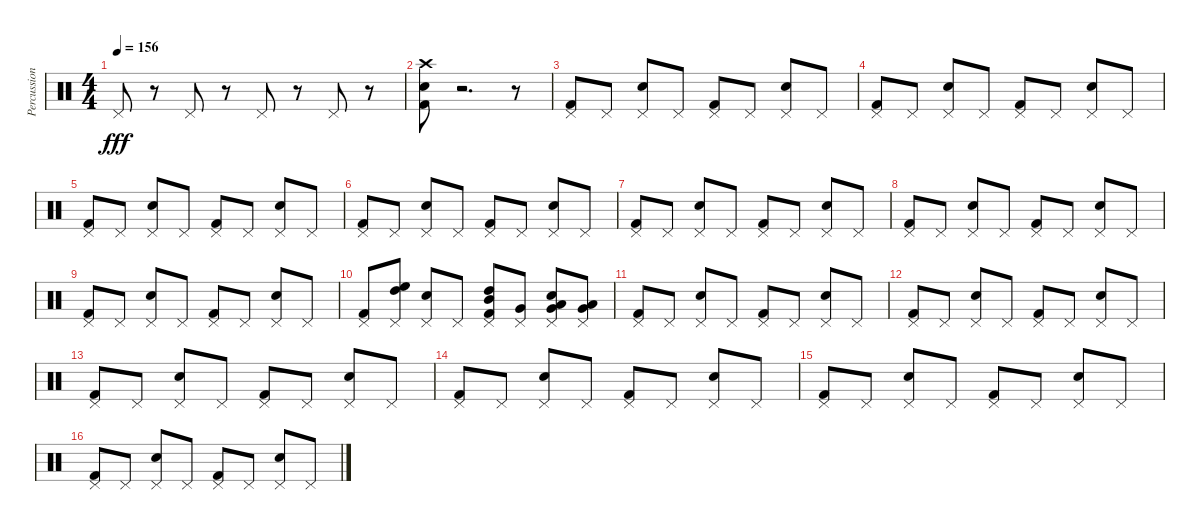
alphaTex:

\track ("Percussion" "Percussion") {instrument percussion}
\staff {score}
\articulation defaults
\ts (4 4)
\tempo 156
\clef neutral
\ks c "Pedal Hi-Hat (hit)".8{dy fff}
r.8 "Pedal Hi-Hat (hit)".8 r.8 "Pedal Hi-Hat (hit)".8 r.8 "Pedal Hi-Hat (hit)".8 r.8 |
("Kick (hit) 2" "Electric Snare (hit)" "Crash high (hit)").8 r.2{d} r.8 |
("Pedal Hi-Hat (hit)" "Kick (hit) 2").8 "Pedal Hi-Hat (hit)".8 ("Pedal Hi-Hat (hit)" "Electric Snare (hit)").8 "Pedal Hi-Hat (hit)".8 ("Pedal Hi-Hat (hit)" "Kick (hit) 2").8 "Pedal Hi-Hat (hit)".8 ("Pedal Hi-Hat (hit)" "Electric Snare (hit)").8 "Pedal Hi-Hat (hit)".8 |
("Pedal Hi-Hat (hit)" "Kick (hit) 2").8 "Pedal Hi-Hat (hit)".8 ("Pedal Hi-Hat (hit)" "Electric Snare (hit)").8 "Pedal Hi-Hat (hit)".8 ("Pedal Hi-Hat (hit)" "Kick (hit) 2").8 "Pedal Hi-Hat (hit)".8 ("Pedal Hi-Hat (hit)" "Electric Snare (hit)").8 "Pedal Hi-Hat (hit)".8 |
("Pedal Hi-Hat (hit)" "Kick (hit) 2").8 "Pedal Hi-Hat (hit)".8 ("Pedal Hi-Hat (hit)" "Electric Snare (hit)").8 "Pedal Hi-Hat (hit)".8 ("Pedal Hi-Hat (hit)" "Kick (hit) 2").8 "Pedal Hi-Hat (hit)".8 ("Pedal Hi-Hat (hit)" "Electric Snare (hit)").8 "Pedal Hi-Hat (hit)".8 |
("Pedal Hi-Hat (hit)" "Kick (hit) 2").8 "Pedal Hi-Hat (hit)".8 ("Pedal Hi-Hat (hit)" "Electric Snare (hit)").8 "Pedal Hi-Hat (hit)".8 ("Pedal Hi-Hat (hit)" "Kick (hit) 2").8 "Pedal Hi-Hat (hit)".8 ("Pedal Hi-Hat (hit)" "Electric Snare (hit)").8 "Pedal Hi-Hat (hit)".8 |
("Pedal Hi-Hat (hit)" "Kick (hit) 2").8 "Pedal Hi-Hat (hit)".8 ("Pedal Hi-Hat (hit)" "Electric Snare (hit)").8 "Pedal Hi-Hat (hit)".8 ("Pedal Hi-Hat (hit)" "Kick (hit) 2").8 "Pedal Hi-Hat (hit)".8 ("Pedal Hi-Hat (hit)" "Electric Snare (hit)").8 "Pedal Hi-Hat (hit)".8 |
("Pedal Hi-Hat (hit)" "Kick (hit) 2").8 "Pedal Hi-Hat (hit)".8 ("Pedal Hi-Hat (hit)" "Electric Snare (hit)").8 "Pedal Hi-Hat (hit)".8 ("Pedal Hi-Hat (hit)" "Kick (hit) 2").8 "Pedal Hi-Hat (hit)".8 ("Pedal Hi-Hat (hit)" "Electric Snare (hit)").8 "Pedal Hi-Hat (hit)".8 |
("Pedal Hi-Hat (hit)" "Kick (hit) 2").8 "Pedal Hi-Hat (hit)".8 ("Pedal Hi-Hat (hit)" "Electric Snare (hit)").8 "Pedal Hi-Hat (hit)".8 ("Pedal Hi-Hat (hit)" "Kick (hit) 2").8 "Pedal Hi-Hat (hit)".8 ("Pedal Hi-Hat (hit)" "Electric Snare (hit)").8 "Pedal Hi-Hat (hit)".8 |
("Pedal Hi-Hat (hit)" "Kick (hit) 2").8 ("Pedal Hi-Hat (hit)" "High Floor Tom (hit)" "High Tom (hit)").8 ("Pedal Hi-Hat (hit)" "Electric Snare (hit)").8 "Pedal Hi-Hat (hit)".8 ("Pedal Hi-Hat (hit)" "Kick (hit) 2" "High Tom (hit)" "Mid Tom (hit)").8 ("Pedal Hi-Hat (hit)" "Very Low Tom (hit)").8 ("Pedal Hi-Hat (hit)" "Electric Snare (hit)" "Low Tom (hit)" "Very Low Tom (hit)").8 ("Pedal Hi-Hat (hit)" "Very Low Tom (hit)" "Low Tom (hit)").8 |
("Pedal Hi-Hat (hit)" "Kick (hit) 2").8 "Pedal Hi-Hat (hit)".8 ("Pedal Hi-Hat (hit)" "Electric Snare (hit)").8 "Pedal Hi-Hat (hit)".8 ("Pedal Hi-Hat (hit)" "Kick (hit) 2").8 "Pedal Hi-Hat (hit)".8 ("Pedal Hi-Hat (hit)" "Electric Snare (hit)").8 "Pedal Hi-Hat (hit)".8 |
("Pedal Hi-Hat (hit)" "Kick (hit) 2").8 "Pedal Hi-Hat (hit)".8 ("Pedal Hi-Hat (hit)" "Electric Snare (hit)").8 "Pedal Hi-Hat (hit)".8 ("Pedal Hi-Hat (hit)" "Kick (hit) 2").8 "Pedal Hi-Hat (hit)".8 ("Pedal Hi-Hat (hit)" "Electric Snare (hit)").8 "Pedal Hi-Hat (hit)".8 |
("Pedal Hi-Hat (hit)" "Kick (hit) 2").8 "Pedal Hi-Hat (hit)".8 ("Pedal Hi-Hat (hit)" "Electric Snare (hit)").8 "Pedal Hi-Hat (hit)".8 ("Pedal Hi-Hat (hit)" "Kick (hit) 2").8 "Pedal Hi-Hat (hit)".8 ("Pedal Hi-Hat (hit)" "Electric Snare (hit)").8 "Pedal Hi-Hat (hit)".8 |
("Pedal Hi-Hat (hit)" "Kick (hit) 2").8 "Pedal Hi-Hat (hit)".8 ("Pedal Hi-Hat (hit)" "Electric Snare (hit)").8 "Pedal Hi-Hat (hit)".8 ("Pedal Hi-Hat (hit)" "Kick (hit) 2").8 "Pedal Hi-Hat (hit)".8 ("Pedal Hi-Hat (hit)" "Electric Snare (hit)").8 "Pedal Hi-Hat (hit)".8 |
("Pedal Hi-Hat (hit)" "Kick (hit) 2").8 "Pedal Hi-Hat (hit)".8 ("Pedal Hi-Hat (hit)" "Electric Snare (hit)").8 "Pedal Hi-Hat (hit)".8 ("Pedal Hi-Hat (hit)" "Kick (hit) 2").8 "Pedal Hi-Hat (hit)".8 ("Pedal Hi-Hat (hit)" "Electric Snare (hit)").8 "Pedal Hi-Hat (hit)".8 |
("Pedal Hi-Hat (hit)" "Kick (hit) 2").8 "Pedal Hi-Hat (hit)".8 ("Pedal Hi-Hat (hit)" "Electric Snare (hit)").8 "Pedal Hi-Hat (hit)".8 ("Pedal Hi-Hat (hit)" "Kick (hit) 2").8 "Pedal Hi-Hat (hit)".8 ("Pedal Hi-Hat (hit)" "Electric Snare (hit)").8 "Pedal Hi-Hat (hit)".8
